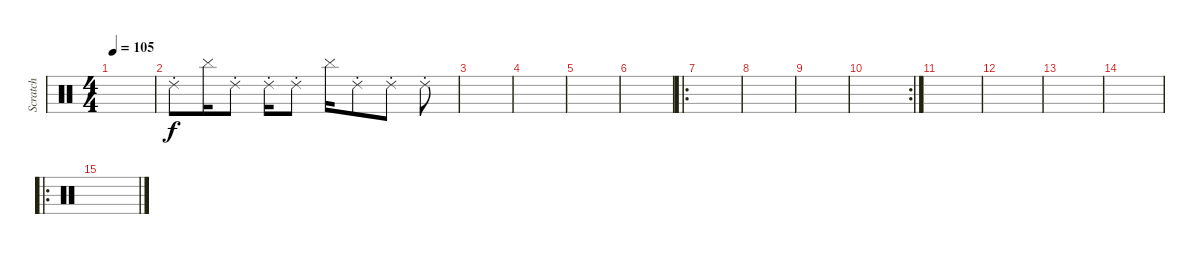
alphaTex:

\track ("Scratch" "Scratch") {instrument percussion}
\staff {score}
\articulation defaults
\ts (4 4)
\tempo 105
\clef neutral
\ks c
|
"Ride (choke) 2".8 "Cymbal (hit)".16 "Ride (choke) 2".8 "Ride (choke) 2".16 "Ride (choke) 2".8 "Cymbal (hit)".16 "Ride (choke) 2".8 "Ride (choke) 2".8 "Ride (choke) 2".8 |
|
|
|
|
\ro
|
|
|
\rc 2
|
|
|
|
|
\ro
